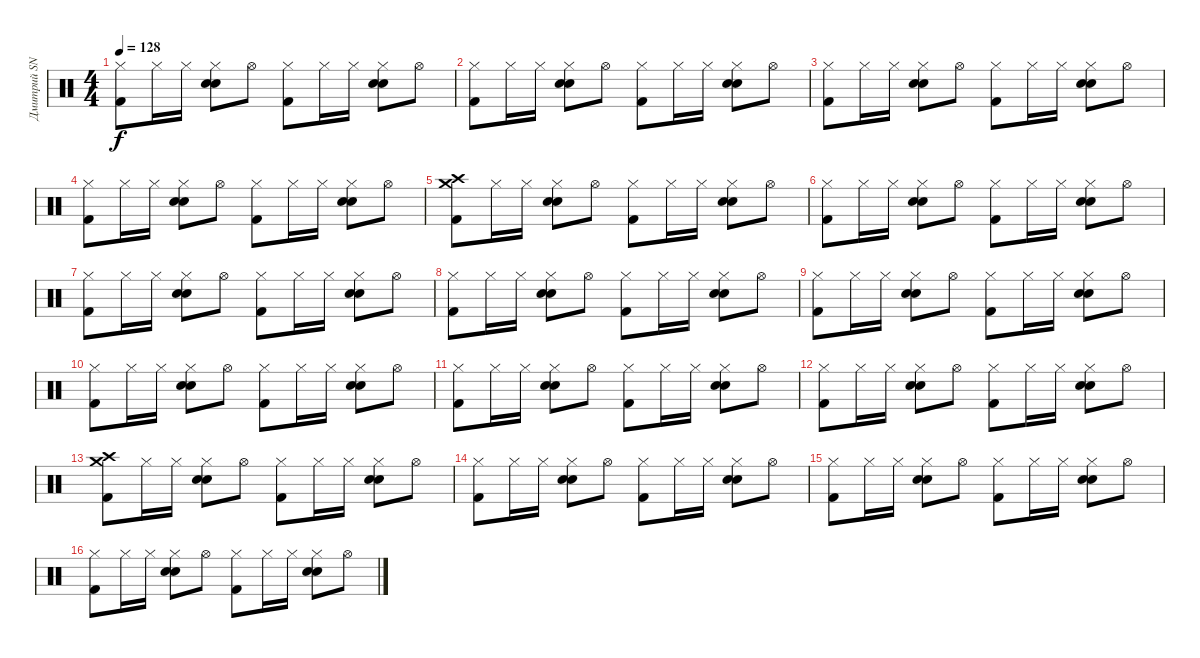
\track ("Дмитрий SNAKE Хакимов" "Дмитрий SN") {instrument percussion}
\staff {score}
\articulation defaults
\ts (4 4)
\tempo 128
\clef neutral
\ks c
("Hi-Hat (closed)" "Kick (hit) 2").8{dy f} "Hi-Hat (closed)".16 "Hi-Hat (closed)".16 ("Hi-Hat (closed)" "Snare (hit) 2" "Hand Clap (hit)").8 "Hi-Hat (open)".8 ("Hi-Hat (closed)" "Kick (hit) 2").8 "Hi-Hat (closed)".16 "Hi-Hat (closed)".16 ("Hi-Hat (closed)" "Snare (hit) 2" "Hand Clap (hit)").8 "Hi-Hat (open)".8 |
("Hi-Hat (closed)" "Kick (hit) 2").8 "Hi-Hat (closed)".16 "Hi-Hat (closed)".16 ("Hi-Hat (closed)" "Snare (hit) 2" "Hand Clap (hit)").8 "Hi-Hat (open)".8 ("Hi-Hat (closed)" "Kick (hit) 2").8 "Hi-Hat (closed)".16 "Hi-Hat (closed)".16 ("Hi-Hat (closed)" "Snare (hit) 2" "Hand Clap (hit)").8 "Hi-Hat (open)".8 |
("Hi-Hat (closed)" "Kick (hit) 2").8 "Hi-Hat (closed)".16 "Hi-Hat (closed)".16 ("Hi-Hat (closed)" "Snare (hit) 2" "Hand Clap (hit)").8 "Hi-Hat (open)".8 ("Hi-Hat (closed)" "Kick (hit) 2").8 "Hi-Hat (closed)".16 "Hi-Hat (closed)".16 ("Hi-Hat (closed)" "Snare (hit) 2" "Hand Clap (hit)").8 "Hi-Hat (open)".8 |
("Hi-Hat (closed)" "Kick (hit) 2").8 "Hi-Hat (closed)".16 "Hi-Hat (closed)".16 ("Hi-Hat (closed)" "Snare (hit) 2" "Hand Clap (hit)").8 "Hi-Hat (open)".8 ("Hi-Hat (closed)" "Kick (hit) 2").8 "Hi-Hat (closed)".16 "Hi-Hat (closed)".16 ("Hi-Hat (closed)" "Snare (hit) 2" "Hand Clap (hit)").8 "Hi-Hat (open)".8 |
("Crash high (hit)" "Crash medium (hit)" "Kick (hit) 2").8 "Hi-Hat (closed)".16 "Hi-Hat (closed)".16 ("Hi-Hat (closed)" "Snare (hit) 2" "Hand Clap (hit)").8 "Hi-Hat (open)".8 ("Hi-Hat (closed)" "Kick (hit) 2").8 "Hi-Hat (closed)".16 "Hi-Hat (closed)".16 ("Hi-Hat (closed)" "Snare (hit) 2" "Hand Clap (hit)").8 "Hi-Hat (open)".8 |
("Hi-Hat (closed)" "Kick (hit) 2").8 "Hi-Hat (closed)".16 "Hi-Hat (closed)".16 ("Hi-Hat (closed)" "Snare (hit) 2" "Hand Clap (hit)").8 "Hi-Hat (open)".8 ("Hi-Hat (closed)" "Kick (hit) 2").8 "Hi-Hat (closed)".16 "Hi-Hat (closed)".16 ("Hi-Hat (closed)" "Snare (hit) 2" "Hand Clap (hit)").8 "Hi-Hat (open)".8 |
("Hi-Hat (closed)" "Kick (hit) 2").8 "Hi-Hat (closed)".16 "Hi-Hat (closed)".16 ("Hi-Hat (closed)" "Snare (hit) 2" "Hand Clap (hit)").8 "Hi-Hat (open)".8 ("Hi-Hat (closed)" "Kick (hit) 2").8 "Hi-Hat (closed)".16 "Hi-Hat (closed)".16 ("Hi-Hat (closed)" "Snare (hit) 2" "Hand Clap (hit)").8 "Hi-Hat (open)".8 |
("Hi-Hat (closed)" "Kick (hit) 2").8 "Hi-Hat (closed)".16 "Hi-Hat (closed)".16 ("Hi-Hat (closed)" "Snare (hit) 2" "Hand Clap (hit)").8 "Hi-Hat (open)".8 ("Hi-Hat (closed)" "Kick (hit) 2").8 "Hi-Hat (closed)".16 "Hi-Hat (closed)".16 ("Hi-Hat (closed)" "Snare (hit) 2" "Hand Clap (hit)").8 "Hi-Hat (open)".8 |
("Hi-Hat (closed)" "Kick (hit) 2").8 "Hi-Hat (closed)".16 "Hi-Hat (closed)".16 ("Hi-Hat (closed)" "Snare (hit) 2" "Hand Clap (hit)").8 "Hi-Hat (open)".8 ("Hi-Hat (closed)" "Kick (hit) 2").8 "Hi-Hat (closed)".16 "Hi-Hat (closed)".16 ("Hi-Hat (closed)" "Snare (hit) 2" "Hand Clap (hit)").8 "Hi-Hat (open)".8 |
("Hi-Hat (closed)" "Kick (hit) 2").8 "Hi-Hat (closed)".16 "Hi-Hat (closed)".16 ("Hi-Hat (closed)" "Snare (hit) 2" "Hand Clap (hit)").8 "Hi-Hat (open)".8 ("Hi-Hat (closed)" "Kick (hit) 2").8 "Hi-Hat (closed)".16 "Hi-Hat (closed)".16 ("Hi-Hat (closed)" "Snare (hit) 2" "Hand Clap (hit)").8 "Hi-Hat (open)".8 |
("Hi-Hat (closed)" "Kick (hit) 2").8 "Hi-Hat (closed)".16 "Hi-Hat (closed)".16 ("Hi-Hat (closed)" "Snare (hit) 2" "Hand Clap (hit)").8 "Hi-Hat (open)".8 ("Hi-Hat (closed)" "Kick (hit) 2").8 "Hi-Hat (closed)".16 "Hi-Hat (closed)".16 ("Hi-Hat (closed)" "Snare (hit) 2" "Hand Clap (hit)").8 "Hi-Hat (open)".8 |
("Hi-Hat (closed)" "Kick (hit) 2").8 "Hi-Hat (closed)".16 "Hi-Hat (closed)".16 ("Hi-Hat (closed)" "Snare (hit) 2" "Hand Clap (hit)").8 "Hi-Hat (open)".8 ("Hi-Hat (closed)" "Kick (hit) 2").8 "Hi-Hat (closed)".16 "Hi-Hat (closed)".16 ("Hi-Hat (closed)" "Snare (hit) 2" "Hand Clap (hit)").8 "Hi-Hat (open)".8 |
("Crash high (hit)" "Crash medium (hit)" "Kick (hit) 2").8 "Hi-Hat (closed)".16 "Hi-Hat (closed)".16 ("Hi-Hat (closed)" "Snare (hit) 2" "Hand Clap (hit)").8 "Hi-Hat (open)".8 ("Hi-Hat (closed)" "Kick (hit) 2").8 "Hi-Hat (closed)".16 "Hi-Hat (closed)".16 ("Hi-Hat (closed)" "Snare (hit) 2" "Hand Clap (hit)").8 "Hi-Hat (open)".8 |
("Hi-Hat (closed)" "Kick (hit) 2").8 "Hi-Hat (closed)".16 "Hi-Hat (closed)".16 ("Hi-Hat (closed)" "Snare (hit) 2" "Hand Clap (hit)").8 "Hi-Hat (open)".8 ("Hi-Hat (closed)" "Kick (hit) 2").8 "Hi-Hat (closed)".16 "Hi-Hat (closed)".16 ("Hi-Hat (closed)" "Snare (hit) 2" "Hand Clap (hit)").8 "Hi-Hat (open)".8 |
("Hi-Hat (closed)" "Kick (hit) 2").8 "Hi-Hat (closed)".16 "Hi-Hat (closed)".16 ("Hi-Hat (closed)" "Snare (hit) 2" "Hand Clap (hit)").8 "Hi-Hat (open)".8 ("Hi-Hat (closed)" "Kick (hit) 2").8 "Hi-Hat (closed)".16 "Hi-Hat (closed)".16 ("Hi-Hat (closed)" "Snare (hit) 2" "Hand Clap (hit)").8 "Hi-Hat (open)".8 |
("Hi-Hat (closed)" "Kick (hit) 2").8 "Hi-Hat (closed)".16 "Hi-Hat (closed)".16 ("Hi-Hat (closed)" "Snare (hit) 2" "Hand Clap (hit)").8 "Hi-Hat (open)".8 ("Hi-Hat (closed)" "Kick (hit) 2").8 "Hi-Hat (closed)".16 "Hi-Hat (closed)".16 ("Hi-Hat (closed)" "Snare (hit) 2" "Hand Clap (hit)").8 "Hi-Hat (open)".8
